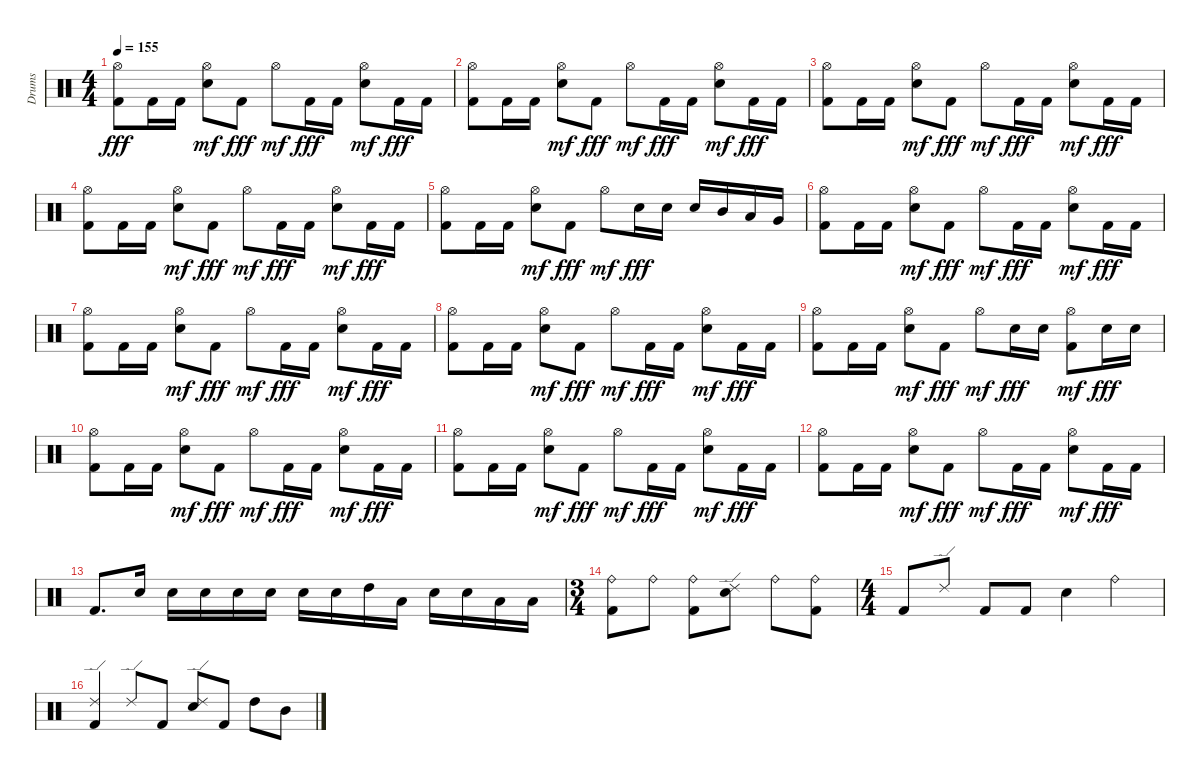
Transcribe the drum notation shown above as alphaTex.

\track ("Drums" "Drums") {instrument percussion}
\staff {score}
\articulation defaults
\ts (4 4)
\tempo 155
\clef neutral
\ks c
("Hi-Hat (open)" "Kick (hit) 2").8{dy fff} "Kick (hit) 2".16 "Kick (hit) 2".16 ("Electric Snare (hit)" "Hi-Hat (open)").8{dy mf} "Kick (hit) 2".8{dy fff} "Hi-Hat (open)".8{dy mf} "Kick (hit) 2".16{dy fff} "Kick (hit) 2".16 ("Electric Snare (hit)" "Hi-Hat (open)").8{dy mf} "Kick (hit) 2".16{dy fff} "Kick (hit) 2".16 |
("Hi-Hat (open)" "Kick (hit) 2").8 "Kick (hit) 2".16 "Kick (hit) 2".16 ("Electric Snare (hit)" "Hi-Hat (open)").8{dy mf} "Kick (hit) 2".8{dy fff} "Hi-Hat (open)".8{dy mf} "Kick (hit) 2".16{dy fff} "Kick (hit) 2".16 ("Electric Snare (hit)" "Hi-Hat (open)").8{dy mf} "Kick (hit) 2".16{dy fff} "Kick (hit) 2".16 |
("Hi-Hat (open)" "Kick (hit) 2").8 "Kick (hit) 2".16 "Kick (hit) 2".16 ("Electric Snare (hit)" "Hi-Hat (open)").8{dy mf} "Kick (hit) 2".8{dy fff} "Hi-Hat (open)".8{dy mf} "Kick (hit) 2".16{dy fff} "Kick (hit) 2".16 ("Electric Snare (hit)" "Hi-Hat (open)").8{dy mf} "Kick (hit) 2".16{dy fff} "Kick (hit) 2".16 |
("Hi-Hat (open)" "Kick (hit) 2").8 "Kick (hit) 2".16 "Kick (hit) 2".16 ("Electric Snare (hit)" "Hi-Hat (open)").8{dy mf} "Kick (hit) 2".8{dy fff} "Hi-Hat (open)".8{dy mf} "Kick (hit) 2".16{dy fff} "Kick (hit) 2".16 ("Electric Snare (hit)" "Hi-Hat (open)").8{dy mf} "Kick (hit) 2".16{dy fff} "Kick (hit) 2".16 |
("Hi-Hat (open)" "Kick (hit) 2").8 "Kick (hit) 2".16 "Kick (hit) 2".16 ("Electric Snare (hit)" "Hi-Hat (open)").8{dy mf} "Kick (hit) 2".8{dy fff} "Hi-Hat (open)".8{dy mf} "Electric Snare (hit)".16{dy fff} "Electric Snare (hit)".16 "Electric Snare (hit)".16 "Mid Tom (hit)".16 "Low Tom (hit)".16 "Very Low Tom (hit)".16 |
("Hi-Hat (open)" "Kick (hit) 2").8 "Kick (hit) 2".16 "Kick (hit) 2".16 ("Electric Snare (hit)" "Hi-Hat (open)").8{dy mf} "Kick (hit) 2".8{dy fff} "Hi-Hat (open)".8{dy mf} "Kick (hit) 2".16{dy fff} "Kick (hit) 2".16 ("Electric Snare (hit)" "Hi-Hat (open)").8{dy mf} "Kick (hit) 2".16{dy fff} "Kick (hit) 2".16 |
("Hi-Hat (open)" "Kick (hit) 2").8 "Kick (hit) 2".16 "Kick (hit) 2".16 ("Electric Snare (hit)" "Hi-Hat (open)").8{dy mf} "Kick (hit) 2".8{dy fff} "Hi-Hat (open)".8{dy mf} "Kick (hit) 2".16{dy fff} "Kick (hit) 2".16 ("Electric Snare (hit)" "Hi-Hat (open)").8{dy mf} "Kick (hit) 2".16{dy fff} "Kick (hit) 2".16 |
("Hi-Hat (open)" "Kick (hit) 2").8 "Kick (hit) 2".16 "Kick (hit) 2".16 ("Electric Snare (hit)" "Hi-Hat (open)").8{dy mf} "Kick (hit) 2".8{dy fff} "Hi-Hat (open)".8{dy mf} "Kick (hit) 2".16{dy fff} "Kick (hit) 2".16 ("Electric Snare (hit)" "Hi-Hat (open)").8{dy mf} "Kick (hit) 2".16{dy fff} "Kick (hit) 2".16 |
("Hi-Hat (open)" "Kick (hit) 2").8 "Kick (hit) 2".16 "Kick (hit) 2".16 ("Electric Snare (hit)" "Hi-Hat (open)").8{dy mf} "Kick (hit) 2".8{dy fff} "Hi-Hat (open)".8{dy mf} "Electric Snare (hit)".16{dy fff} "Electric Snare (hit)".16 ("Hi-Hat (open)" "Kick (hit) 2").8{dy mf} "Electric Snare (hit)".16{dy fff} "Electric Snare (hit)".16 |
("Hi-Hat (open)" "Kick (hit) 2").8 "Kick (hit) 2".16 "Kick (hit) 2".16 ("Electric Snare (hit)" "Hi-Hat (open)").8{dy mf} "Kick (hit) 2".8{dy fff} "Hi-Hat (open)".8{dy mf} "Kick (hit) 2".16{dy fff} "Kick (hit) 2".16 ("Electric Snare (hit)" "Hi-Hat (open)").8{dy mf} "Kick (hit) 2".16{dy fff} "Kick (hit) 2".16 |
("Hi-Hat (open)" "Kick (hit) 2").8 "Kick (hit) 2".16 "Kick (hit) 2".16 ("Electric Snare (hit)" "Hi-Hat (open)").8{dy mf} "Kick (hit) 2".8{dy fff} "Hi-Hat (open)".8{dy mf} "Kick (hit) 2".16{dy fff} "Kick (hit) 2".16 ("Electric Snare (hit)" "Hi-Hat (open)").8{dy mf} "Kick (hit) 2".16{dy fff} "Kick (hit) 2".16 |
("Hi-Hat (open)" "Kick (hit) 2").8 "Kick (hit) 2".16 "Kick (hit) 2".16 ("Electric Snare (hit)" "Hi-Hat (open)").8{dy mf} "Kick (hit) 2".8{dy fff} "Hi-Hat (open)".8{dy mf} "Kick (hit) 2".16{dy fff} "Kick (hit) 2".16 ("Electric Snare (hit)" "Hi-Hat (open)").8{dy mf} "Kick (hit) 2".16{dy fff} "Kick (hit) 2".16 |
"Kick (hit) 2".8{d} "Electric Snare (hit)".16 "Electric Snare (hit)".16 "Electric Snare (hit)".16 "Electric Snare (hit)".16 "Electric Snare (hit)".16 "Electric Snare (hit)".16 "Electric Snare (hit)".16 "High Tom (hit)".16 "Low Tom (hit)".16 "Electric Snare (hit)".16 "Electric Snare (hit)".16 "Low Floor Tom (hit)".16 "Low Floor Tom (hit)".16 |
\ts (3 4)
("Ride (bell)" "Kick (hit) 2").8 "Ride (bell)".8 ("Ride (bell)" "Kick (hit) 2").8 ("Electric Snare (hit)" "Ride (edge) 2").8 "Ride (bell)".8 ("Ride (bell)" "Kick (hit) 2").8 |
\ts (4 4)
"Kick (hit) 2".8 "Ride (edge) 2".8 "Kick (hit) 2".8 "Kick (hit) 2".8 "Electric Snare (hit)".4 "Ride (bell)".4 |
("Ride (edge) 2" "Kick (hit) 2").4 "Ride (edge) 2".8 "Kick (hit) 2".8 ("Electric Snare (hit)" "Ride (edge) 2").8 "Kick (hit) 2".8 "High Tom (hit)".8 "Mid Tom (hit)".8
